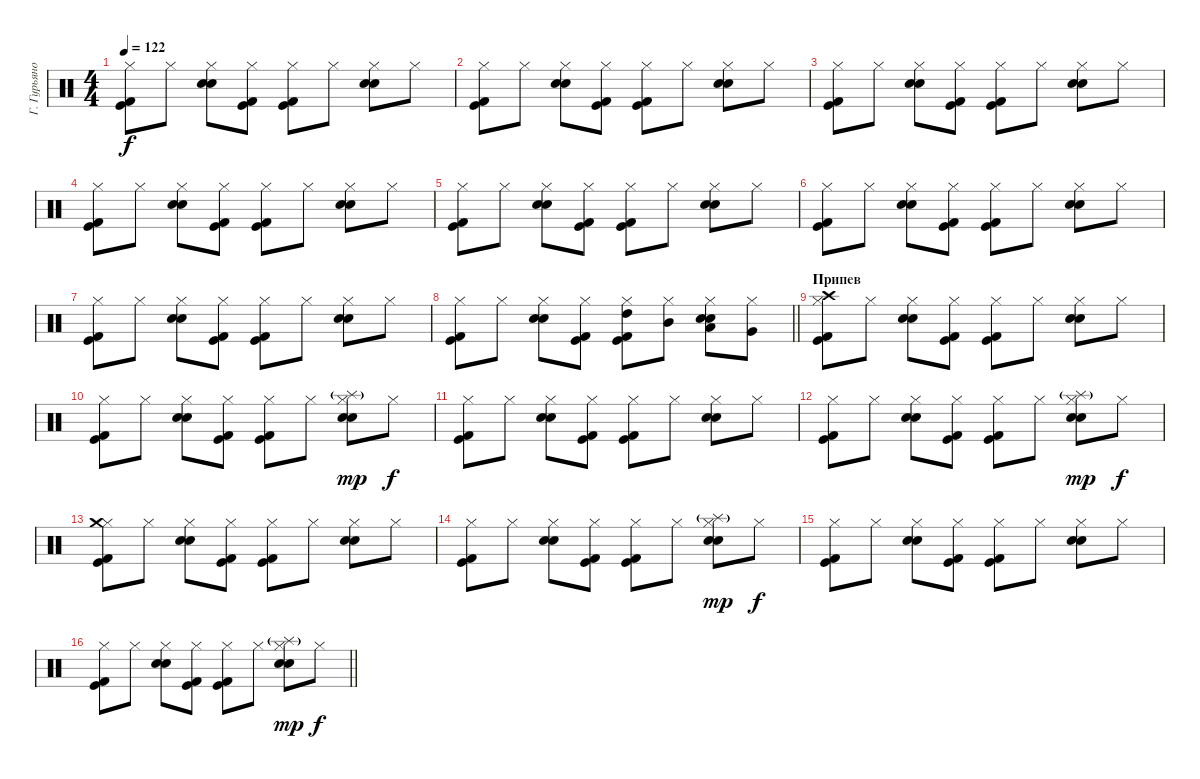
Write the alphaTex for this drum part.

\track ("Г. Гурьянов" "Г. Гурьяно") {instrument percussion}
\staff
\articulation defaults
\ts (4 4)
\tempo 122
\clef neutral
\ks c
("Hi-Hat (closed)" "Kick (hit)" "Kick (hit) 2").8{dy f} "Hi-Hat (closed)".8 ("Hi-Hat (closed)" "Electric Snare (hit)" "Snare (hit) 2").8 ("Hi-Hat (closed)" "Kick (hit)" "Kick (hit) 2").8 ("Hi-Hat (closed)" "Kick (hit)" "Kick (hit) 2").8 "Hi-Hat (closed)".8 ("Hi-Hat (closed)" "Electric Snare (hit)" "Snare (hit) 2").8 "Hi-Hat (closed)".8 |
("Hi-Hat (closed)" "Kick (hit)" "Kick (hit) 2").8 "Hi-Hat (closed)".8 ("Hi-Hat (closed)" "Electric Snare (hit)" "Snare (hit) 2").8 ("Hi-Hat (closed)" "Kick (hit)" "Kick (hit) 2").8 ("Hi-Hat (closed)" "Kick (hit)" "Kick (hit) 2").8 "Hi-Hat (closed)".8 ("Hi-Hat (closed)" "Electric Snare (hit)" "Snare (hit) 2").8 "Hi-Hat (closed)".8 |
("Hi-Hat (closed)" "Kick (hit)" "Kick (hit) 2").8 "Hi-Hat (closed)".8 ("Hi-Hat (closed)" "Electric Snare (hit)" "Snare (hit) 2").8 ("Hi-Hat (closed)" "Kick (hit)" "Kick (hit) 2").8 ("Hi-Hat (closed)" "Kick (hit)" "Kick (hit) 2").8 "Hi-Hat (closed)".8 ("Hi-Hat (closed)" "Electric Snare (hit)" "Snare (hit) 2").8 "Hi-Hat (closed)".8 |
("Hi-Hat (closed)" "Kick (hit)" "Kick (hit) 2").8 "Hi-Hat (closed)".8 ("Hi-Hat (closed)" "Electric Snare (hit)" "Snare (hit) 2").8 ("Hi-Hat (closed)" "Kick (hit)" "Kick (hit) 2").8 ("Hi-Hat (closed)" "Kick (hit)" "Kick (hit) 2").8 "Hi-Hat (closed)".8 ("Hi-Hat (closed)" "Electric Snare (hit)" "Snare (hit) 2").8 "Hi-Hat (closed)".8 |
("Hi-Hat (closed)" "Kick (hit)" "Kick (hit) 2").8 "Hi-Hat (closed)".8 ("Hi-Hat (closed)" "Electric Snare (hit)" "Snare (hit) 2").8 ("Hi-Hat (closed)" "Kick (hit)" "Kick (hit) 2").8 ("Hi-Hat (closed)" "Kick (hit)" "Kick (hit) 2").8 "Hi-Hat (closed)".8 ("Hi-Hat (closed)" "Electric Snare (hit)" "Snare (hit) 2").8 "Hi-Hat (closed)".8 |
("Hi-Hat (closed)" "Kick (hit)" "Kick (hit) 2").8 "Hi-Hat (closed)".8 ("Hi-Hat (closed)" "Electric Snare (hit)" "Snare (hit) 2").8 ("Hi-Hat (closed)" "Kick (hit)" "Kick (hit) 2").8 ("Hi-Hat (closed)" "Kick (hit)" "Kick (hit) 2").8 "Hi-Hat (closed)".8 ("Hi-Hat (closed)" "Electric Snare (hit)" "Snare (hit) 2").8 "Hi-Hat (closed)".8 |
("Hi-Hat (closed)" "Kick (hit)" "Kick (hit) 2").8 "Hi-Hat (closed)".8 ("Hi-Hat (closed)" "Electric Snare (hit)" "Snare (hit) 2").8 ("Hi-Hat (closed)" "Kick (hit)" "Kick (hit) 2").8 ("Hi-Hat (closed)" "Kick (hit)" "Kick (hit) 2").8 "Hi-Hat (closed)".8 ("Hi-Hat (closed)" "Electric Snare (hit)" "Snare (hit) 2").8 "Hi-Hat (closed)".8 |
\barLineRight lightlight
("Hi-Hat (closed)" "Kick (hit)" "Kick (hit) 2").8 "Hi-Hat (closed)".8 ("Hi-Hat (closed)" "Electric Snare (hit)" "Snare (hit) 2").8 ("Hi-Hat (closed)" "Kick (hit)" "Kick (hit) 2").8 ("Hi-Hat (closed)" "High Tom (hit)" "Kick (hit)" "Kick (hit) 2").8 ("Hi-Hat (closed)" "Mid Tom (hit)").8 ("Hi-Hat (closed)" "Electric Snare (hit)" "Snare (hit) 2" "Low Tom (hit)").8 ("Hi-Hat (closed)" "Very Low Tom (hit)").8 |
\section ("" "Припев")
("Hi-Hat (closed)" "Crash high (hit)" "Kick (hit)" "Kick (hit) 2").8 "Hi-Hat (closed)".8 ("Hi-Hat (closed)" "Electric Snare (hit)" "Snare (hit) 2").8 ("Hi-Hat (closed)" "Kick (hit)" "Kick (hit) 2").8 ("Hi-Hat (closed)" "Kick (hit)" "Kick (hit) 2").8 "Hi-Hat (closed)".8 ("Hi-Hat (closed)" "Electric Snare (hit)" "Snare (hit) 2").8 "Hi-Hat (closed)".8 |
("Hi-Hat (closed)" "Kick (hit)" "Kick (hit) 2").8 "Hi-Hat (closed)".8 ("Hi-Hat (closed)" "Electric Snare (hit)" "Snare (hit) 2").8 ("Hi-Hat (closed)" "Kick (hit)" "Kick (hit) 2").8 ("Hi-Hat (closed)" "Kick (hit)" "Kick (hit) 2").8 "Hi-Hat (closed)".8 ("Hi-Hat (closed)" "Electric Snare (hit)" "Snare (hit) 2" "Splash (hit)"{g}).8{dy mp} "Hi-Hat (closed)".8{dy f} |
("Hi-Hat (closed)" "Kick (hit)" "Kick (hit) 2").8 "Hi-Hat (closed)".8 ("Hi-Hat (closed)" "Electric Snare (hit)" "Snare (hit) 2").8 ("Hi-Hat (closed)" "Kick (hit)" "Kick (hit) 2").8 ("Hi-Hat (closed)" "Kick (hit)" "Kick (hit) 2").8 "Hi-Hat (closed)".8 ("Hi-Hat (closed)" "Electric Snare (hit)" "Snare (hit) 2").8 "Hi-Hat (closed)".8 |
("Hi-Hat (closed)" "Kick (hit)" "Kick (hit) 2").8 "Hi-Hat (closed)".8 ("Hi-Hat (closed)" "Electric Snare (hit)" "Snare (hit) 2").8 ("Hi-Hat (closed)" "Kick (hit)" "Kick (hit) 2").8 ("Hi-Hat (closed)" "Kick (hit)" "Kick (hit) 2").8 "Hi-Hat (closed)".8 ("Hi-Hat (closed)" "Electric Snare (hit)" "Snare (hit) 2" "Splash (hit)"{g}).8{dy mp} "Hi-Hat (closed)".8{dy f} |
("Hi-Hat (closed)" "Crash medium (hit)" "Kick (hit)" "Kick (hit) 2").8 "Hi-Hat (closed)".8 ("Hi-Hat (closed)" "Electric Snare (hit)" "Snare (hit) 2").8 ("Hi-Hat (closed)" "Kick (hit)" "Kick (hit) 2").8 ("Hi-Hat (closed)" "Kick (hit)" "Kick (hit) 2").8 "Hi-Hat (closed)".8 ("Hi-Hat (closed)" "Electric Snare (hit)" "Snare (hit) 2").8 "Hi-Hat (closed)".8 |
("Hi-Hat (closed)" "Kick (hit)" "Kick (hit) 2").8 "Hi-Hat (closed)".8 ("Hi-Hat (closed)" "Electric Snare (hit)" "Snare (hit) 2").8 ("Hi-Hat (closed)" "Kick (hit)" "Kick (hit) 2").8 ("Hi-Hat (closed)" "Kick (hit)" "Kick (hit) 2").8 "Hi-Hat (closed)".8 ("Hi-Hat (closed)" "Electric Snare (hit)" "Snare (hit) 2" "Splash (hit)"{g}).8{dy mp} "Hi-Hat (closed)".8{dy f} |
("Hi-Hat (closed)" "Kick (hit)" "Kick (hit) 2").8 "Hi-Hat (closed)".8 ("Hi-Hat (closed)" "Electric Snare (hit)" "Snare (hit) 2").8 ("Hi-Hat (closed)" "Kick (hit)" "Kick (hit) 2").8 ("Hi-Hat (closed)" "Kick (hit)" "Kick (hit) 2").8 "Hi-Hat (closed)".8 ("Hi-Hat (closed)" "Electric Snare (hit)" "Snare (hit) 2").8 "Hi-Hat (closed)".8 |
\barLineRight lightlight
("Hi-Hat (closed)" "Kick (hit)" "Kick (hit) 2").8 "Hi-Hat (closed)".8 ("Hi-Hat (closed)" "Electric Snare (hit)" "Snare (hit) 2").8 ("Hi-Hat (closed)" "Kick (hit)" "Kick (hit) 2").8 ("Hi-Hat (closed)" "Kick (hit)" "Kick (hit) 2").8 "Hi-Hat (closed)".8 ("Hi-Hat (closed)" "Electric Snare (hit)" "Snare (hit) 2" "Splash (hit)"{g}).8{dy mp} "Hi-Hat (closed)".8{dy f}
